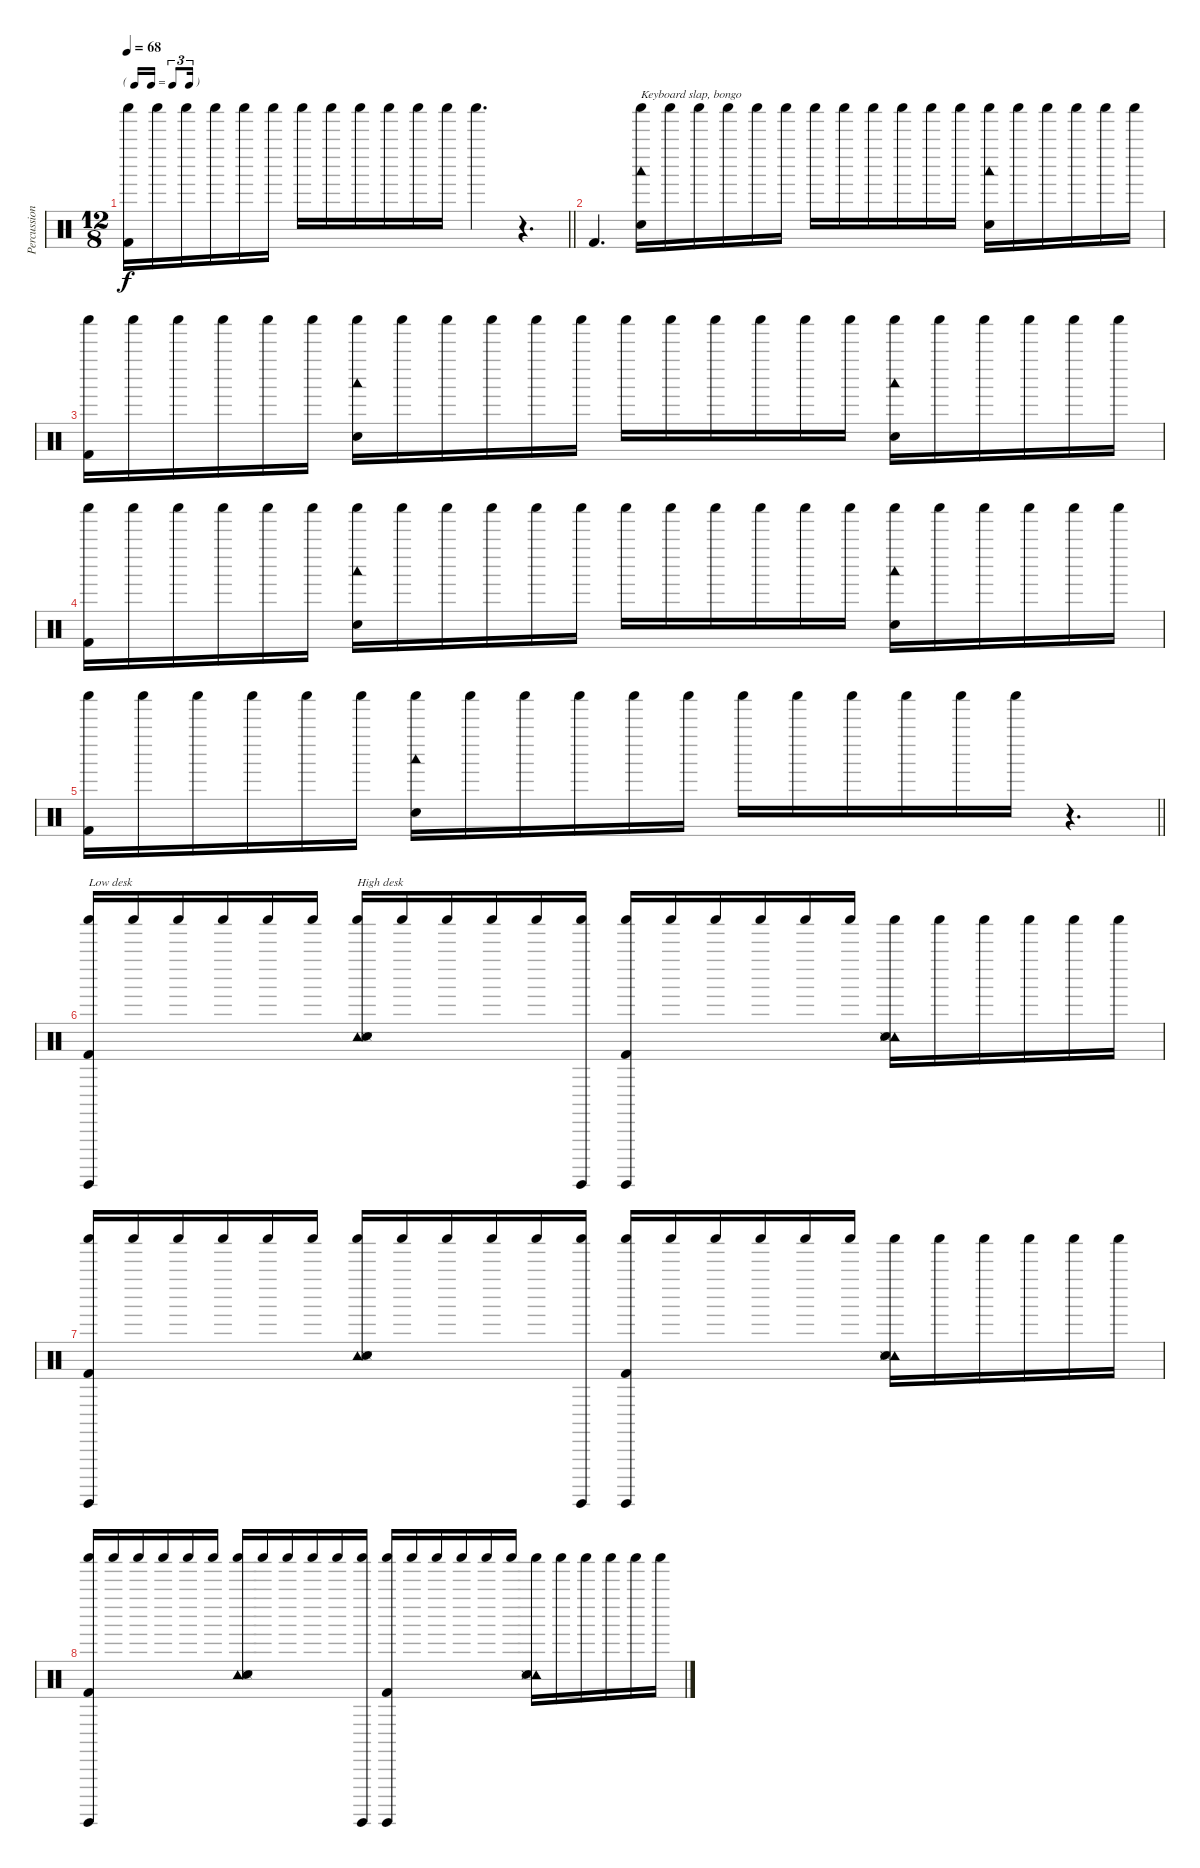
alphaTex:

\track ("Percussion" "Percussion") {instrument percussion}
\staff {score}
\articulation defaults
\ts (12 8)
\tf triplet16th
\tempo 68
\clef neutral
\barLineRight lightlight
\ks c
("Shaker (hit)" "Kick (hit) 2").16{dy f} "Shaker (hit)".16 "Shaker (hit)".16 "Shaker (hit)".16 "Shaker (hit)".16 "Shaker (hit)".16 "Shaker (hit)".16 "Shaker (hit)".16 "Shaker (hit)".16 "Shaker (hit)".16 "Shaker (hit)".16 "Shaker (hit)".16 "Shaker (hit)".4{d} r.4{d} |
"Kick (hit) 2".4{d} ("Shaker (hit)" "Hand Clap (hit)" "Woodblock low (hit)").16{txt "Keyboard slap, bongo"} "Shaker (hit)".16 "Shaker (hit)".16 "Shaker (hit)".16 "Shaker (hit)".16 "Shaker (hit)".16 "Shaker (hit)".16 "Shaker (hit)".16 "Shaker (hit)".16 "Shaker (hit)".16 "Shaker (hit)".16 "Shaker (hit)".16 ("Shaker (hit)" "Hand Clap (hit)" "Woodblock low (hit)").16 "Shaker (hit)".16 "Shaker (hit)".16 "Shaker (hit)".16 "Shaker (hit)".16 "Shaker (hit)".16 |
("Shaker (hit)" "Kick (hit) 2").16 "Shaker (hit)".16 "Shaker (hit)".16 "Shaker (hit)".16 "Shaker (hit)".16 "Shaker (hit)".16 ("Shaker (hit)" "Hand Clap (hit)" "Woodblock low (hit)").16 "Shaker (hit)".16 "Shaker (hit)".16 "Shaker (hit)".16 "Shaker (hit)".16 "Shaker (hit)".16 "Shaker (hit)".16 "Shaker (hit)".16 "Shaker (hit)".16 "Shaker (hit)".16 "Shaker (hit)".16 "Shaker (hit)".16 ("Shaker (hit)" "Hand Clap (hit)" "Woodblock low (hit)").16 "Shaker (hit)".16 "Shaker (hit)".16 "Shaker (hit)".16 "Shaker (hit)".16 "Shaker (hit)".16 |
("Shaker (hit)" "Kick (hit) 2").16 "Shaker (hit)".16 "Shaker (hit)".16 "Shaker (hit)".16 "Shaker (hit)".16 "Shaker (hit)".16 ("Shaker (hit)" "Hand Clap (hit)" "Woodblock low (hit)").16 "Shaker (hit)".16 "Shaker (hit)".16 "Shaker (hit)".16 "Shaker (hit)".16 "Shaker (hit)".16 "Shaker (hit)".16 "Shaker (hit)".16 "Shaker (hit)".16 "Shaker (hit)".16 "Shaker (hit)".16 "Shaker (hit)".16 ("Shaker (hit)" "Hand Clap (hit)" "Woodblock low (hit)").16 "Shaker (hit)".16 "Shaker (hit)".16 "Shaker (hit)".16 "Shaker (hit)".16 "Shaker (hit)".16 |
\barLineRight lightlight
("Shaker (hit)" "Kick (hit) 2").16 "Shaker (hit)".16 "Shaker (hit)".16 "Shaker (hit)".16 "Shaker (hit)".16 "Shaker (hit)".16 ("Shaker (hit)" "Hand Clap (hit)" "Woodblock low (hit)").16 "Shaker (hit)".16 "Shaker (hit)".16 "Shaker (hit)".16 "Shaker (hit)".16 "Shaker (hit)".16 "Shaker (hit)".16 "Shaker (hit)".16 "Shaker (hit)".16 "Shaker (hit)".16 "Shaker (hit)".16 "Shaker (hit)".16 r.4{d} |
("Shaker (hit)" "Surdo (hit)" "Kick (hit) 2").16{txt "Low desk"} "Shaker (hit)".16 "Shaker (hit)".16 "Shaker (hit)".16 "Shaker (hit)".16 "Shaker (hit)".16 ("Tambourine (hit)" "Shaker (hit)" "Hand Clap (hit)" "Snare (side stick) 3").16{txt "High desk"} "Shaker (hit)".16 "Shaker (hit)".16 "Shaker (hit)".16 "Shaker (hit)".16 ("Shaker (hit)" "Surdo (hit)").16 ("Shaker (hit)" "Surdo (hit)" "Kick (hit) 2").16 "Shaker (hit)".16 "Shaker (hit)".16 "Shaker (hit)".16 "Shaker (hit)".16 "Shaker (hit)".16 ("Tambourine (hit)" "Shaker (hit)" "Hand Clap (hit)" "Snare (side stick) 3").16 "Shaker (hit)".16 "Shaker (hit)".16 "Shaker (hit)".16 "Shaker (hit)".16 "Shaker (hit)".16 |
("Shaker (hit)" "Surdo (hit)" "Kick (hit) 2").16 "Shaker (hit)".16 "Shaker (hit)".16 "Shaker (hit)".16 "Shaker (hit)".16 "Shaker (hit)".16 ("Tambourine (hit)" "Shaker (hit)" "Hand Clap (hit)" "Snare (side stick) 3").16 "Shaker (hit)".16 "Shaker (hit)".16 "Shaker (hit)".16 "Shaker (hit)".16 ("Shaker (hit)" "Surdo (hit)").16 ("Shaker (hit)" "Surdo (hit)" "Kick (hit) 2").16 "Shaker (hit)".16 "Shaker (hit)".16 "Shaker (hit)".16 "Shaker (hit)".16 "Shaker (hit)".16 ("Tambourine (hit)" "Shaker (hit)" "Hand Clap (hit)" "Snare (side stick) 3").16 "Shaker (hit)".16 "Shaker (hit)".16 "Shaker (hit)".16 "Shaker (hit)".16 "Shaker (hit)".16 |
("Shaker (hit)" "Surdo (hit)" "Kick (hit) 2").16 "Shaker (hit)".16 "Shaker (hit)".16 "Shaker (hit)".16 "Shaker (hit)".16 "Shaker (hit)".16 ("Tambourine (hit)" "Shaker (hit)" "Hand Clap (hit)" "Snare (side stick) 3").16 "Shaker (hit)".16 "Shaker (hit)".16 "Shaker (hit)".16 "Shaker (hit)".16 ("Shaker (hit)" "Surdo (hit)").16 ("Shaker (hit)" "Surdo (hit)" "Kick (hit) 2").16 "Shaker (hit)".16 "Shaker (hit)".16 "Shaker (hit)".16 "Shaker (hit)".16 "Shaker (hit)".16 ("Tambourine (hit)" "Shaker (hit)" "Hand Clap (hit)" "Snare (side stick) 3").16 "Shaker (hit)".16 "Shaker (hit)".16 "Shaker (hit)".16 "Shaker (hit)".16 "Shaker (hit)".16
